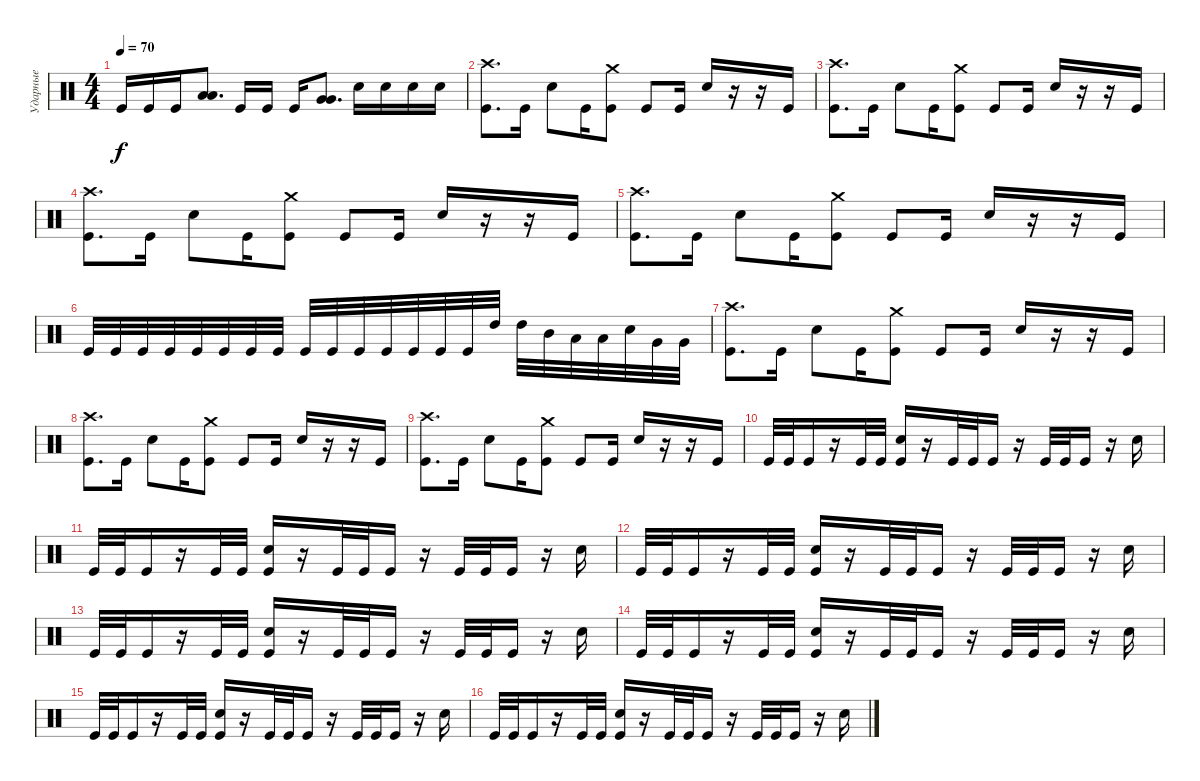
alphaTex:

\track ("Ударные" "Ударные") {instrument percussion}
\staff {score}
\articulation defaults
\ts (4 4)
\tempo 70
\clef neutral
\ks c "Kick (hit)".16{dy f} "Kick (hit)".16 "Kick (hit)".16
("Low Tom (hit)" "Low Tom (hit)").8{d} "Kick (hit)".16 "Kick (hit)".16 "Kick (hit)".16 ("Very Low Tom (hit)" "Very Low Tom (hit)").8{d} "Electric Snare (hit)".16 "Electric Snare (hit)".16 "Electric Snare (hit)".16 "Electric Snare (hit)".16 |
("Crash high (hit)" "Kick (hit)").8{d} "Kick (hit)".16 "Electric Snare (hit)".8 "Kick (hit)".16 ("Crash medium (hit)" "Kick (hit)").8 "Kick (hit)".8 "Kick (hit)".16 "Electric Snare (hit)".16 r.16 r.16 "Kick (hit)".16 |
("Crash high (hit)" "Kick (hit)").8{d} "Kick (hit)".16 "Electric Snare (hit)".8 "Kick (hit)".16 ("Crash medium (hit)" "Kick (hit)").8 "Kick (hit)".8 "Kick (hit)".16 "Electric Snare (hit)".16 r.16 r.16 "Kick (hit)".16 |
("Crash high (hit)" "Kick (hit)").8{d} "Kick (hit)".16 "Electric Snare (hit)".8 "Kick (hit)".16 ("Crash medium (hit)" "Kick (hit)").8 "Kick (hit)".8 "Kick (hit)".16 "Electric Snare (hit)".16 r.16 r.16 "Kick (hit)".16 |
("Crash high (hit)" "Kick (hit)").8{d} "Kick (hit)".16 "Electric Snare (hit)".8 "Kick (hit)".16 ("Crash medium (hit)" "Kick (hit)").8 "Kick (hit)".8 "Kick (hit)".16 "Electric Snare (hit)".16 r.16 r.16 "Kick (hit)".16 |
"Kick (hit)".32 "Kick (hit)".32 "Kick (hit)".32 "Kick (hit)".32 "Kick (hit)".32 "Kick (hit)".32 "Kick (hit)".32 "Kick (hit)".32 "Kick (hit)".32 "Kick (hit)".32 "Kick (hit)".32 "Kick (hit)".32 "Kick (hit)".32 "Kick (hit)".32 "Kick (hit)".32 "High Tom (hit)".32 "High Tom (hit)".32 "Mid Tom (hit)".32 "Low Tom (hit)".32 "Low Tom (hit)".32 "Electric Snare (hit)".32 "Very Low Tom (hit)".32 "Very Low Tom (hit)".32 |
("Crash high (hit)" "Kick (hit)").8{d} "Kick (hit)".16 "Electric Snare (hit)".8 "Kick (hit)".16 ("Crash medium (hit)" "Kick (hit)").8 "Kick (hit)".8 "Kick (hit)".16 "Electric Snare (hit)".16 r.16 r.16 "Kick (hit)".16 |
("Crash high (hit)" "Kick (hit)").8{d} "Kick (hit)".16 "Electric Snare (hit)".8 "Kick (hit)".16 ("Crash medium (hit)" "Kick (hit)").8 "Kick (hit)".8 "Kick (hit)".16 "Electric Snare (hit)".16 r.16 r.16 "Kick (hit)".16 |
("Crash high (hit)" "Kick (hit)").8{d} "Kick (hit)".16 "Electric Snare (hit)".8 "Kick (hit)".16 ("Crash medium (hit)" "Kick (hit)").8 "Kick (hit)".8 "Kick (hit)".16 "Electric Snare (hit)".16 r.16 r.16 "Kick (hit)".16 |
"Kick (hit)".32 "Kick (hit)".32 "Kick (hit)".16 r.16 "Kick (hit)".32 "Kick (hit)".32 ("Electric Snare (hit)" "Kick (hit)").16 r.16 "Kick (hit)".32 "Kick (hit)".32 "Kick (hit)".16 r.16 "Kick (hit)".32 "Kick (hit)".32 "Kick (hit)".16 r.16 "Electric Snare (hit)".16 |
"Kick (hit)".32 "Kick (hit)".32 "Kick (hit)".16 r.16 "Kick (hit)".32 "Kick (hit)".32 ("Electric Snare (hit)" "Kick (hit)").16 r.16 "Kick (hit)".32 "Kick (hit)".32 "Kick (hit)".16 r.16 "Kick (hit)".32 "Kick (hit)".32 "Kick (hit)".16 r.16 "Electric Snare (hit)".16 |
"Kick (hit)".32 "Kick (hit)".32 "Kick (hit)".16 r.16 "Kick (hit)".32 "Kick (hit)".32 ("Electric Snare (hit)" "Kick (hit)").16 r.16 "Kick (hit)".32 "Kick (hit)".32 "Kick (hit)".16 r.16 "Kick (hit)".32 "Kick (hit)".32 "Kick (hit)".16 r.16 "Electric Snare (hit)".16 |
"Kick (hit)".32 "Kick (hit)".32 "Kick (hit)".16 r.16 "Kick (hit)".32 "Kick (hit)".32 ("Electric Snare (hit)" "Kick (hit)").16 r.16 "Kick (hit)".32 "Kick (hit)".32 "Kick (hit)".16 r.16 "Kick (hit)".32 "Kick (hit)".32 "Kick (hit)".16 r.16 "Electric Snare (hit)".16 |
"Kick (hit)".32 "Kick (hit)".32 "Kick (hit)".16 r.16 "Kick (hit)".32 "Kick (hit)".32 ("Electric Snare (hit)" "Kick (hit)").16 r.16 "Kick (hit)".32 "Kick (hit)".32 "Kick (hit)".16 r.16 "Kick (hit)".32 "Kick (hit)".32 "Kick (hit)".16 r.16 "Electric Snare (hit)".16 |
"Kick (hit)".32 "Kick (hit)".32 "Kick (hit)".16 r.16 "Kick (hit)".32 "Kick (hit)".32 ("Electric Snare (hit)" "Kick (hit)").16 r.16 "Kick (hit)".32 "Kick (hit)".32 "Kick (hit)".16 r.16 "Kick (hit)".32 "Kick (hit)".32 "Kick (hit)".16 r.16 "Electric Snare (hit)".16 |
"Kick (hit)".32 "Kick (hit)".32 "Kick (hit)".16 r.16 "Kick (hit)".32 "Kick (hit)".32 ("Electric Snare (hit)" "Kick (hit)").16 r.16 "Kick (hit)".32 "Kick (hit)".32 "Kick (hit)".16 r.16 "Kick (hit)".32 "Kick (hit)".32 "Kick (hit)".16 r.16 "Electric Snare (hit)".16
